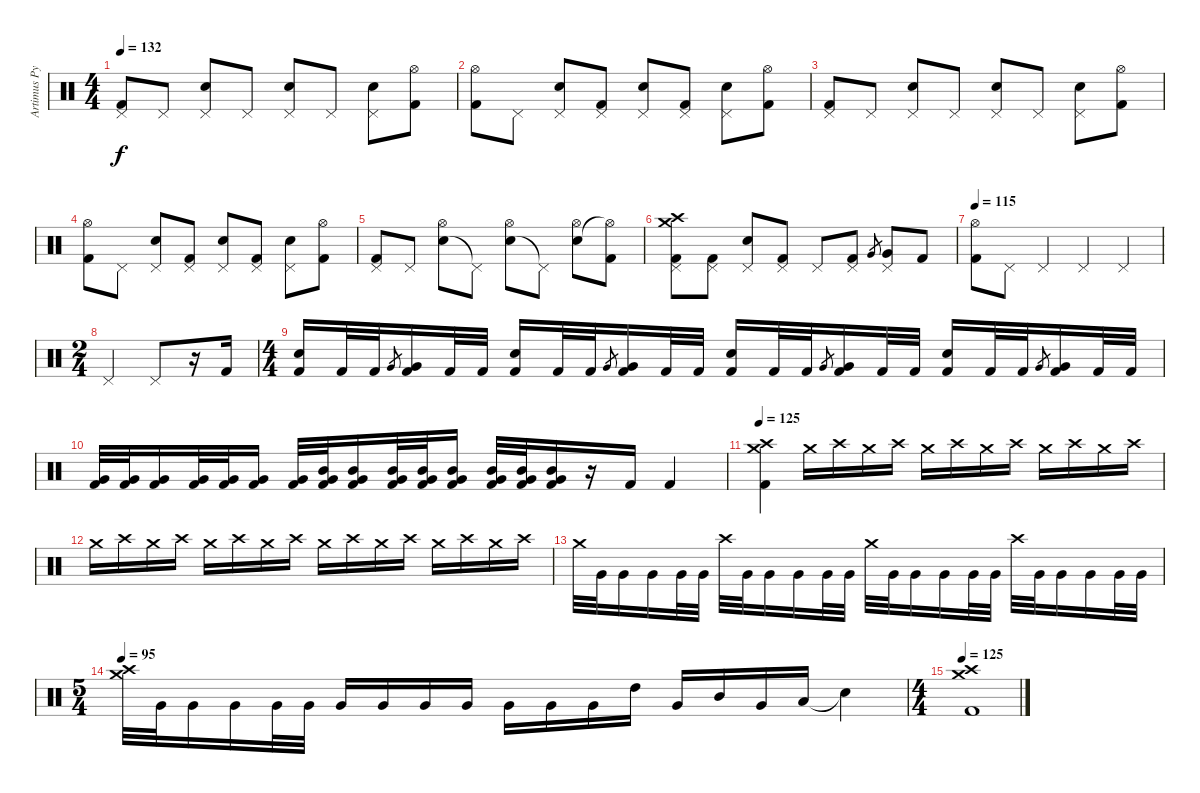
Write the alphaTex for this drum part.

\track ("Artimus Pyle" "Artimus Py") {instrument percussion}
\staff {score}
\articulation defaults
\ts (4 4)
\tempo 132
\clef neutral
\ks c
("Pedal Hi-Hat (hit)" "Kick (hit) 2").8{dy f} "Pedal Hi-Hat (hit)".8 ("Snare (hit) 2" "Pedal Hi-Hat (hit)").8 "Pedal Hi-Hat (hit)".8 ("Snare (hit) 2" "Pedal Hi-Hat (hit)").8 "Pedal Hi-Hat (hit)".8 ("Snare (hit) 2" "Pedal Hi-Hat (hit)").8 ("Hi-Hat (open)" "Kick (hit) 2").8 |
("Hi-Hat (open)" "Kick (hit) 2").8 "Pedal Hi-Hat (hit)".8 ("Snare (hit) 2" "Pedal Hi-Hat (hit)").8 ("Pedal Hi-Hat (hit)" "Kick (hit) 2").8 ("Snare (hit) 2" "Pedal Hi-Hat (hit)").8 ("Pedal Hi-Hat (hit)" "Kick (hit) 2").8 ("Snare (hit) 2" "Pedal Hi-Hat (hit)").8 ("Hi-Hat (open)" "Kick (hit) 2").8 |
("Pedal Hi-Hat (hit)" "Kick (hit) 2").8 "Pedal Hi-Hat (hit)".8 ("Snare (hit) 2" "Pedal Hi-Hat (hit)").8 "Pedal Hi-Hat (hit)".8 ("Snare (hit) 2" "Pedal Hi-Hat (hit)").8 "Pedal Hi-Hat (hit)".8 ("Snare (hit) 2" "Pedal Hi-Hat (hit)").8 ("Hi-Hat (open)" "Kick (hit) 2").8 |
("Hi-Hat (open)" "Kick (hit) 2").8 "Pedal Hi-Hat (hit)".8 ("Snare (hit) 2" "Pedal Hi-Hat (hit)").8 ("Pedal Hi-Hat (hit)" "Kick (hit) 2").8 ("Snare (hit) 2" "Pedal Hi-Hat (hit)").8 ("Pedal Hi-Hat (hit)" "Kick (hit) 2").8 ("Snare (hit) 2" "Pedal Hi-Hat (hit)").8 ("Hi-Hat (open)" "Kick (hit) 2").8 |
("Pedal Hi-Hat (hit)" "Kick (hit) 2").8 "Pedal Hi-Hat (hit)".8 ("Snare (hit) 2" "Hi-Hat (open)").8 "Pedal Hi-Hat (hit)"{t}.8 ("Snare (hit) 2" "Hi-Hat (open)").8 "Pedal Hi-Hat (hit)"{t}.8 ("Snare (hit) 2" "Hi-Hat (open)").8 ("Hi-Hat (open)"{t} "Kick (hit) 2").8 |
("Crash high (hit)" "Crash medium (hit)" "Pedal Hi-Hat (hit)" "Kick (hit) 2").8 ("Pedal Hi-Hat (hit)" "Kick (hit) 2").8 ("Snare (hit) 2" "Pedal Hi-Hat (hit)").8 ("Pedal Hi-Hat (hit)" "Kick (hit) 2").8 "Pedal Hi-Hat (hit)".8 ("Pedal Hi-Hat (hit)" "Kick (hit) 2").8 "Very Low Tom (hit)".8{gr} ("Very Low Tom (hit)" "Pedal Hi-Hat (hit)").8 "Kick (hit) 2".8 |
\tempo 115
("Hi-Hat (open)" "Kick (hit) 2").8 "Pedal Hi-Hat (hit)".8 "Pedal Hi-Hat (hit)".4 "Pedal Hi-Hat (hit)".4 "Pedal Hi-Hat (hit)".4 |
\ts (2 4)
"Pedal Hi-Hat (hit)".4 "Pedal Hi-Hat (hit)".8 r.16 "Kick (hit) 2".16 |
\ts (4 4)
("Snare (hit) 2" "Kick (hit) 2").16 "Kick (hit) 2".32 "Kick (hit) 2".32 "Very Low Tom (hit)".8{gr} ("Very Low Tom (hit)" "Kick (hit) 2").16 "Kick (hit) 2".32 "Kick (hit) 2".32 ("Snare (hit) 2" "Kick (hit) 2").16 "Kick (hit) 2".32 "Kick (hit) 2".32 "Very Low Tom (hit)".8{gr} ("Very Low Tom (hit)" "Kick (hit) 2").16 "Kick (hit) 2".32 "Kick (hit) 2".32 ("Snare (hit) 2" "Kick (hit) 2").16 "Kick (hit) 2".32 "Kick (hit) 2".32 "Very Low Tom (hit)".8{gr} ("Very Low Tom (hit)" "Kick (hit) 2").16 "Kick (hit) 2".32 "Kick (hit) 2".32 ("Snare (hit) 2" "Kick (hit) 2").16 "Kick (hit) 2".32 "Kick (hit) 2".32 "Very Low Tom (hit)".8{gr} ("Very Low Tom (hit)" "Kick (hit) 2").16 "Kick (hit) 2".32 "Kick (hit) 2".32 |
("Very Low Tom (hit)" "Kick (hit) 2").32 ("Very Low Tom (hit)" "Kick (hit) 2").32 ("Very Low Tom (hit)" "Kick (hit) 2").16 ("Very Low Tom (hit)" "Kick (hit) 2").32 ("Very Low Tom (hit)" "Kick (hit) 2").32 ("Very Low Tom (hit)" "Kick (hit) 2").16 ("Very Low Tom (hit)" "Kick (hit) 2").32 ("Mid Tom (hit)" "Very Low Tom (hit)" "Kick (hit) 2").32 ("Mid Tom (hit)" "Very Low Tom (hit)" "Kick (hit) 2").16 ("Mid Tom (hit)" "Very Low Tom (hit)" "Kick (hit) 2").32 ("Mid Tom (hit)" "Very Low Tom (hit)" "Kick (hit) 2").32 ("Mid Tom (hit)" "Very Low Tom (hit)" "Kick (hit) 2").16 ("Mid Tom (hit)" "Very Low Tom (hit)" "Kick (hit) 2").32 ("Mid Tom (hit)" "Very Low Tom (hit)" "Kick (hit) 2").32 ("Mid Tom (hit)" "Very Low Tom (hit)" "Kick (hit) 2").16 r.16 "Kick (hit) 2".16 "Kick (hit) 2".4 |
\tempo 125
("Crash medium (hit)" "Crash high (hit)" "Kick (hit) 2").4 "Crash medium (hit)".16 "Crash high (hit)".16 "Crash medium (hit)".16 "Crash high (hit)".16 "Crash medium (hit)".16 "Crash high (hit)".16 "Crash medium (hit)".16 "Crash high (hit)".16 "Crash medium (hit)".16 "Crash high (hit)".16 "Crash medium (hit)".16 "Crash high (hit)".16 |
"Crash medium (hit)".16 "Crash high (hit)".16 "Crash medium (hit)".16 "Crash high (hit)".16 "Crash medium (hit)".16 "Crash high (hit)".16 "Crash medium (hit)".16 "Crash high (hit)".16 "Crash medium (hit)".16 "Crash high (hit)".16 "Crash medium (hit)".16 "Crash high (hit)".16 "Crash medium (hit)".16 "Crash high (hit)".16 "Crash medium (hit)".16 "Crash high (hit)".16 |
"Crash medium (hit)".32 "Very Low Tom (hit)".32 "Very Low Tom (hit)".16 "Very Low Tom (hit)".16 "Very Low Tom (hit)".32 "Very Low Tom (hit)".32 "Crash high (hit)".32 "Very Low Tom (hit)".32 "Very Low Tom (hit)".16 "Very Low Tom (hit)".16 "Very Low Tom (hit)".32 "Very Low Tom (hit)".32 "Crash medium (hit)".32 "Very Low Tom (hit)".32 "Very Low Tom (hit)".16 "Very Low Tom (hit)".16 "Very Low Tom (hit)".32 "Very Low Tom (hit)".32 "Crash high (hit)".32 "Very Low Tom (hit)".32 "Very Low Tom (hit)".16 "Very Low Tom (hit)".16 "Very Low Tom (hit)".32 "Very Low Tom (hit)".32 |
\ts (5 4)
\tempo 95
("Crash medium (hit)" "Crash high (hit)").32 "Very Low Tom (hit)".32 "Very Low Tom (hit)".16 "Very Low Tom (hit)".16 "Very Low Tom (hit)".32 "Very Low Tom (hit)".32 "Very Low Tom (hit)".16 "Very Low Tom (hit)".16 "Very Low Tom (hit)".16 "Very Low Tom (hit)".16 "Very Low Tom (hit)".16 "Very Low Tom (hit)".16 "Very Low Tom (hit)".16 "High Tom (hit)".16 "Very Low Tom (hit)".16 "Mid Tom (hit)".16 "Very Low Tom (hit)".16 "Low Tom (hit)".16 "Snare (hit)"{t}.4 |
\ts (4 4)
\tempo 125
("Crash medium (hit)" "Crash high (hit)" "Kick (hit) 2").1
